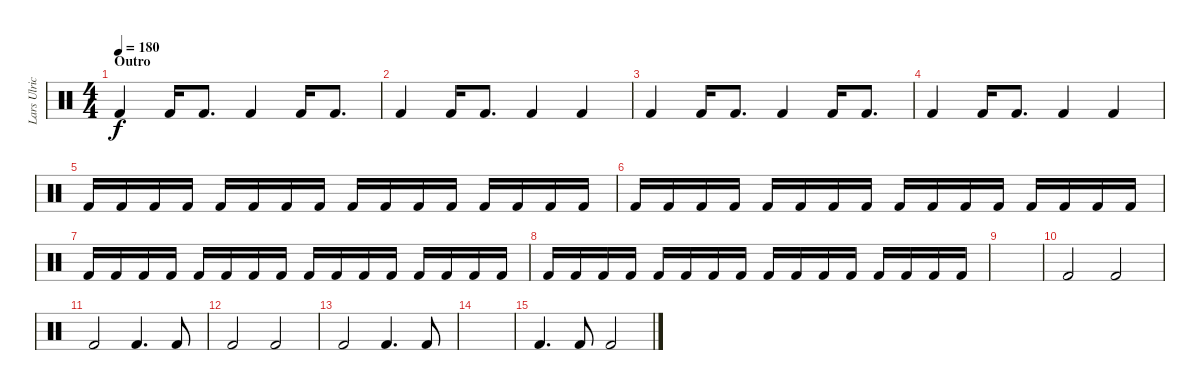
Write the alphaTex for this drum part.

\track ("Lars Ulrich" "Lars Ulric") {instrument percussion}
\staff {score}
\articulation defaults
\ts (4 4)
\section ("" "Outro")
\tempo 180
\clef neutral
\ks c "Kick (hit) 2".4{dy f} "Kick (hit) 2".16 "Kick (hit) 2".8{d} "Kick (hit) 2".4 "Kick (hit) 2".16 "Kick (hit) 2".8{d}
|
"Kick (hit) 2".4 "Kick (hit) 2".16 "Kick (hit) 2".8{d} "Kick (hit) 2".4 "Kick (hit) 2".4 |
"Kick (hit) 2".4 "Kick (hit) 2".16 "Kick (hit) 2".8{d} "Kick (hit) 2".4 "Kick (hit) 2".16 "Kick (hit) 2".8{d} |
"Kick (hit) 2".4 "Kick (hit) 2".16 "Kick (hit) 2".8{d} "Kick (hit) 2".4 "Kick (hit) 2".4 |
"Kick (hit) 2".16 "Kick (hit) 2".16 "Kick (hit) 2".16 "Kick (hit) 2".16 "Kick (hit) 2".16 "Kick (hit) 2".16 "Kick (hit) 2".16 "Kick (hit) 2".16 "Kick (hit) 2".16 "Kick (hit) 2".16 "Kick (hit) 2".16 "Kick (hit) 2".16 "Kick (hit) 2".16 "Kick (hit) 2".16 "Kick (hit) 2".16 "Kick (hit) 2".16 |
"Kick (hit) 2".16 "Kick (hit) 2".16 "Kick (hit) 2".16 "Kick (hit) 2".16 "Kick (hit) 2".16 "Kick (hit) 2".16 "Kick (hit) 2".16 "Kick (hit) 2".16 "Kick (hit) 2".16 "Kick (hit) 2".16 "Kick (hit) 2".16 "Kick (hit) 2".16 "Kick (hit) 2".16 "Kick (hit) 2".16 "Kick (hit) 2".16 "Kick (hit) 2".16 |
"Kick (hit) 2".16 "Kick (hit) 2".16 "Kick (hit) 2".16 "Kick (hit) 2".16 "Kick (hit) 2".16 "Kick (hit) 2".16 "Kick (hit) 2".16 "Kick (hit) 2".16 "Kick (hit) 2".16 "Kick (hit) 2".16 "Kick (hit) 2".16 "Kick (hit) 2".16 "Kick (hit) 2".16 "Kick (hit) 2".16 "Kick (hit) 2".16 "Kick (hit) 2".16 |
"Kick (hit) 2".16 "Kick (hit) 2".16 "Kick (hit) 2".16 "Kick (hit) 2".16 "Kick (hit) 2".16 "Kick (hit) 2".16 "Kick (hit) 2".16 "Kick (hit) 2".16 "Kick (hit) 2".16 "Kick (hit) 2".16 "Kick (hit) 2".16 "Kick (hit) 2".16 "Kick (hit) 2".16 "Kick (hit) 2".16 "Kick (hit) 2".16 "Kick (hit) 2".16 |
|
"Kick (hit) 2".2 "Kick (hit) 2".2 |
"Kick (hit) 2".2 "Kick (hit) 2".4{d} "Kick (hit) 2".8 |
"Kick (hit) 2".2 "Kick (hit) 2".2 |
"Kick (hit) 2".2 "Kick (hit) 2".4{d} "Kick (hit) 2".8 |
|
"Kick (hit) 2".4{d} "Kick (hit) 2".8 "Kick (hit) 2".2
